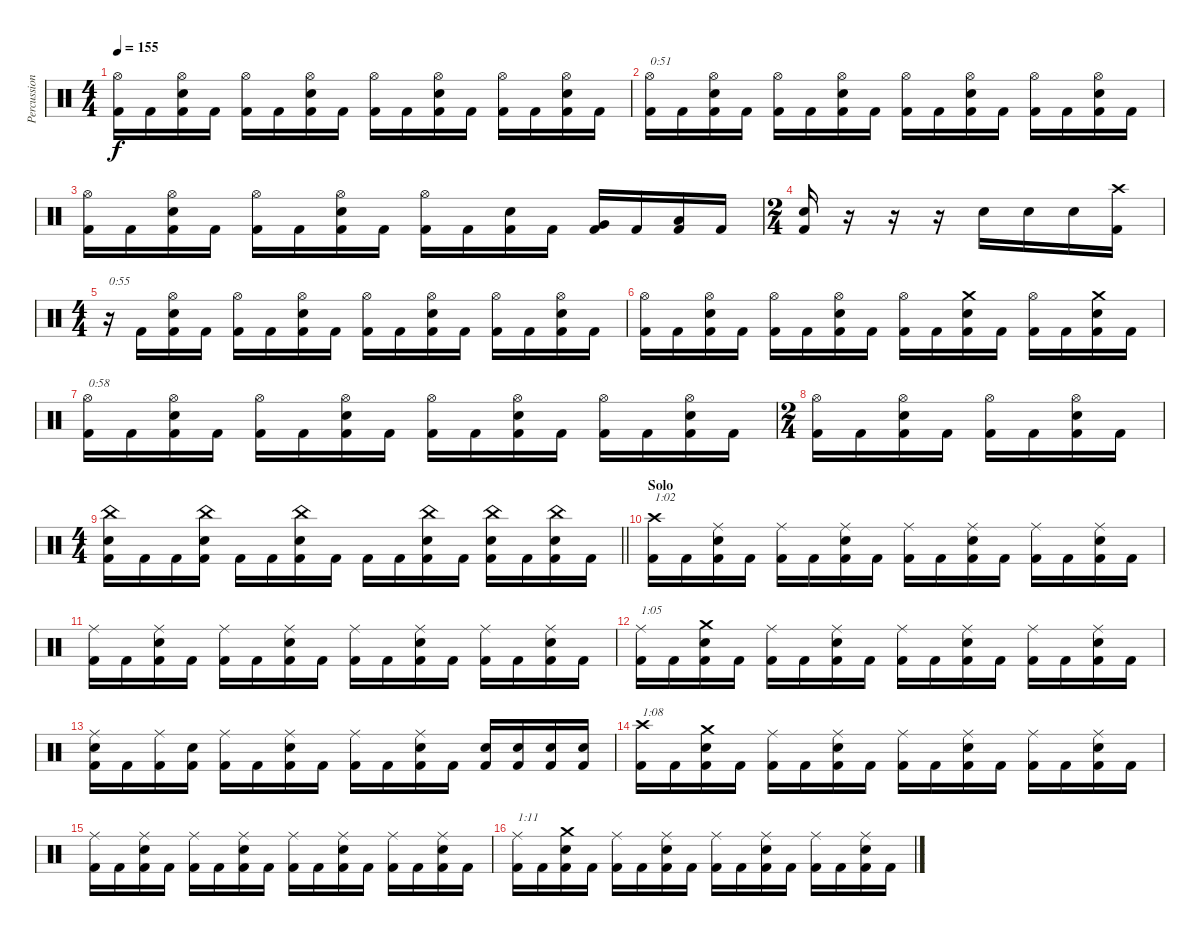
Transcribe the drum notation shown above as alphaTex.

\track ("Percussion" "Percussion") {instrument percussion}
\staff {score}
\articulation defaults
\ts (4 4)
\tempo 155
\clef neutral
\ks c
("Hi-Hat (open)" "Kick (hit) 2").16{dy f} "Kick (hit) 2".16 ("Hi-Hat (open)" "Electric Snare (hit)" "Kick (hit) 2").16 "Kick (hit) 2".16 ("Hi-Hat (open)" "Kick (hit) 2").16 "Kick (hit) 2".16 ("Hi-Hat (open)" "Electric Snare (hit)" "Kick (hit) 2").16 "Kick (hit) 2".16 ("Hi-Hat (open)" "Kick (hit) 2").16 "Kick (hit) 2".16 ("Hi-Hat (open)" "Electric Snare (hit)" "Kick (hit) 2").16 "Kick (hit) 2".16 ("Hi-Hat (open)" "Kick (hit) 2").16 "Kick (hit) 2".16 ("Hi-Hat (open)" "Electric Snare (hit)" "Kick (hit) 2").16 "Kick (hit) 2".16 |
("Hi-Hat (open)" "Kick (hit) 2").16{txt "0:51"} "Kick (hit) 2".16 ("Hi-Hat (open)" "Electric Snare (hit)" "Kick (hit) 2").16 "Kick (hit) 2".16 ("Hi-Hat (open)" "Kick (hit) 2").16 "Kick (hit) 2".16 ("Hi-Hat (open)" "Electric Snare (hit)" "Kick (hit) 2").16 "Kick (hit) 2".16 ("Hi-Hat (open)" "Kick (hit) 2").16 "Kick (hit) 2".16 ("Hi-Hat (open)" "Electric Snare (hit)" "Kick (hit) 2").16 "Kick (hit) 2".16 ("Hi-Hat (open)" "Kick (hit) 2").16 "Kick (hit) 2".16 ("Hi-Hat (open)" "Electric Snare (hit)" "Kick (hit) 2").16 "Kick (hit) 2".16 |
("Hi-Hat (open)" "Kick (hit) 2").16 "Kick (hit) 2".16 ("Hi-Hat (open)" "Electric Snare (hit)" "Kick (hit) 2").16 "Kick (hit) 2".16 ("Hi-Hat (open)" "Kick (hit) 2").16 "Kick (hit) 2".16 ("Hi-Hat (open)" "Electric Snare (hit)" "Kick (hit) 2").16 "Kick (hit) 2".16 ("Hi-Hat (open)" "Kick (hit) 2").16 "Kick (hit) 2".16 ("Electric Snare (hit)" "Kick (hit) 2").16 "Kick (hit) 2".16 ("Very Low Tom (hit)" "Kick (hit) 2").16 "Kick (hit) 2".16 ("Low Floor Tom (hit)" "Kick (hit) 2").16 "Kick (hit) 2".16 |
\ts (2 4)
("Electric Snare (hit)" "Kick (hit) 2").16 r.16 r.16 r.16 "Electric Snare (hit)".16 "Electric Snare (hit)".16 "Electric Snare (hit)".16 ("Crash high (hit)" "Kick (hit) 2").16 |
\ts (4 4)
r.16{txt "0:55"} "Kick (hit) 2".16 ("Hi-Hat (open)" "Electric Snare (hit)" "Kick (hit) 2").16 "Kick (hit) 2".16 ("Hi-Hat (open)" "Kick (hit) 2").16 "Kick (hit) 2".16 ("Hi-Hat (open)" "Electric Snare (hit)" "Kick (hit) 2").16 "Kick (hit) 2".16 ("Hi-Hat (open)" "Kick (hit) 2").16 "Kick (hit) 2".16 ("Hi-Hat (open)" "Electric Snare (hit)" "Kick (hit) 2").16 "Kick (hit) 2".16 ("Hi-Hat (open)" "Kick (hit) 2").16 "Kick (hit) 2".16 ("Hi-Hat (open)" "Electric Snare (hit)" "Kick (hit) 2").16 "Kick (hit) 2".16 |
("Hi-Hat (open)" "Kick (hit) 2").16 "Kick (hit) 2".16 ("Hi-Hat (open)" "Electric Snare (hit)" "Kick (hit) 2").16 "Kick (hit) 2".16 ("Hi-Hat (open)" "Kick (hit) 2").16 "Kick (hit) 2".16 ("Hi-Hat (open)" "Electric Snare (hit)" "Kick (hit) 2").16 "Kick (hit) 2".16 ("Hi-Hat (open)" "Kick (hit) 2").16 "Kick (hit) 2".16 ("Crash medium (hit)" "Electric Snare (hit)" "Kick (hit) 2").16 "Kick (hit) 2".16 ("Hi-Hat (open)" "Kick (hit) 2").16 "Kick (hit) 2".16 ("Crash medium (hit)" "Electric Snare (hit)" "Kick (hit) 2").16 "Kick (hit) 2".16 |
("Hi-Hat (open)" "Kick (hit) 2").16{txt "0:58"} "Kick (hit) 2".16 ("Hi-Hat (open)" "Electric Snare (hit)" "Kick (hit) 2").16 "Kick (hit) 2".16 ("Hi-Hat (open)" "Kick (hit) 2").16 "Kick (hit) 2".16 ("Hi-Hat (open)" "Electric Snare (hit)" "Kick (hit) 2").16 "Kick (hit) 2".16 ("Hi-Hat (open)" "Kick (hit) 2").16 "Kick (hit) 2".16 ("Hi-Hat (open)" "Electric Snare (hit)" "Kick (hit) 2").16 "Kick (hit) 2".16 ("Hi-Hat (open)" "Kick (hit) 2").16 "Kick (hit) 2".16 ("Hi-Hat (open)" "Electric Snare (hit)" "Kick (hit) 2").16 "Kick (hit) 2".16 |
\ts (2 4)
("Hi-Hat (open)" "Kick (hit) 2").16 "Kick (hit) 2".16 ("Hi-Hat (open)" "Electric Snare (hit)" "Kick (hit) 2").16 "Kick (hit) 2".16 ("Hi-Hat (open)" "Kick (hit) 2").16 "Kick (hit) 2".16 ("Hi-Hat (open)" "Electric Snare (hit)" "Kick (hit) 2").16 "Kick (hit) 2".16 |
\ts (4 4)
\barLineRight lightlight
("China (hit)" "Electric Snare (hit)" "Kick (hit) 2").16 "Kick (hit) 2".16 "Kick (hit) 2".16 ("China (hit)" "Electric Snare (hit)" "Kick (hit) 2").16 "Kick (hit) 2".16 "Kick (hit) 2".16 ("China (hit)" "Electric Snare (hit)" "Kick (hit) 2").16 "Kick (hit) 2".16 "Kick (hit) 2".16 "Kick (hit) 2".16 ("China (hit)" "Electric Snare (hit)" "Kick (hit) 2").16 "Kick (hit) 2".16 ("China (hit)" "Electric Snare (hit)" "Kick (hit) 2").16 "Kick (hit) 2".16 ("China (hit)" "Electric Snare (hit)" "Kick (hit) 2").16 "Kick (hit) 2".16 |
\section ("" "Solo")
("Crash high (hit)" "Kick (hit) 2").16{txt "1:02"} "Kick (hit) 2".16 ("Ride (middle)" "Electric Snare (hit)" "Kick (hit) 2").16 "Kick (hit) 2".16 ("Ride (middle)" "Kick (hit) 2").16 "Kick (hit) 2".16 ("Ride (middle)" "Electric Snare (hit)" "Kick (hit) 2").16 "Kick (hit) 2".16 ("Ride (middle)" "Kick (hit) 2").16 "Kick (hit) 2".16 ("Ride (middle)" "Electric Snare (hit)" "Kick (hit) 2").16 "Kick (hit) 2".16 ("Ride (middle)" "Kick (hit) 2").16 "Kick (hit) 2".16 ("Ride (middle)" "Electric Snare (hit)" "Kick (hit) 2").16 "Kick (hit) 2".16 |
("Ride (middle)" "Kick (hit) 2").16 "Kick (hit) 2".16 ("Ride (middle)" "Electric Snare (hit)" "Kick (hit) 2").16 "Kick (hit) 2".16 ("Ride (middle)" "Kick (hit) 2").16 "Kick (hit) 2".16 ("Ride (middle)" "Electric Snare (hit)" "Kick (hit) 2").16 "Kick (hit) 2".16 ("Ride (middle)" "Kick (hit) 2").16 "Kick (hit) 2".16 ("Ride (middle)" "Electric Snare (hit)" "Kick (hit) 2").16 "Kick (hit) 2".16 ("Ride (middle)" "Kick (hit) 2").16 "Kick (hit) 2".16 ("Ride (middle)" "Electric Snare (hit)" "Kick (hit) 2").16 "Kick (hit) 2".16 |
("Ride (middle)" "Kick (hit) 2").16{txt "1:05"} "Kick (hit) 2".16 ("Crash medium (hit)" "Electric Snare (hit)" "Kick (hit) 2").16 "Kick (hit) 2".16 ("Ride (middle)" "Kick (hit) 2").16 "Kick (hit) 2".16 ("Ride (middle)" "Electric Snare (hit)" "Kick (hit) 2").16 "Kick (hit) 2".16 ("Ride (middle)" "Kick (hit) 2").16 "Kick (hit) 2".16 ("Ride (middle)" "Electric Snare (hit)" "Kick (hit) 2").16 "Kick (hit) 2".16 ("Ride (middle)" "Kick (hit) 2").16 "Kick (hit) 2".16 ("Ride (middle)" "Electric Snare (hit)" "Kick (hit) 2").16 "Kick (hit) 2".16 |
("Ride (middle)" "Electric Snare (hit)" "Kick (hit) 2").16 "Kick (hit) 2".16 ("Ride (middle)" "Kick (hit) 2").16 ("Electric Snare (hit)" "Kick (hit) 2").16 ("Ride (middle)" "Kick (hit) 2").16 "Kick (hit) 2".16 ("Ride (middle)" "Electric Snare (hit)" "Kick (hit) 2").16 "Kick (hit) 2".16 ("Ride (middle)" "Kick (hit) 2").16 "Kick (hit) 2".16 ("Ride (middle)" "Electric Snare (hit)" "Kick (hit) 2").16 "Kick (hit) 2".16 ("Electric Snare (hit)" "Kick (hit) 2").16 ("Electric Snare (hit)" "Kick (hit) 2").16 ("Electric Snare (hit)" "Kick (hit) 2").16 ("Electric Snare (hit)" "Kick (hit) 2").16 |
("Crash high (hit)" "Kick (hit) 2").16{txt "1:08"} "Kick (hit) 2".16 ("Crash medium (hit)" "Electric Snare (hit)" "Kick (hit) 2").16 "Kick (hit) 2".16 ("Ride (middle)" "Kick (hit) 2").16 "Kick (hit) 2".16 ("Ride (middle)" "Electric Snare (hit)" "Kick (hit) 2").16 "Kick (hit) 2".16 ("Ride (middle)" "Kick (hit) 2").16 "Kick (hit) 2".16 ("Ride (middle)" "Electric Snare (hit)" "Kick (hit) 2").16 "Kick (hit) 2".16 ("Ride (middle)" "Kick (hit) 2").16 "Kick (hit) 2".16 ("Ride (middle)" "Electric Snare (hit)" "Kick (hit) 2").16 "Kick (hit) 2".16 |
("Ride (middle)" "Kick (hit) 2").16 "Kick (hit) 2".16 ("Ride (middle)" "Electric Snare (hit)" "Kick (hit) 2").16 "Kick (hit) 2".16 ("Ride (middle)" "Kick (hit) 2").16 "Kick (hit) 2".16 ("Ride (middle)" "Electric Snare (hit)" "Kick (hit) 2").16 "Kick (hit) 2".16 ("Ride (middle)" "Kick (hit) 2").16 "Kick (hit) 2".16 ("Ride (middle)" "Electric Snare (hit)" "Kick (hit) 2").16 "Kick (hit) 2".16 ("Ride (middle)" "Kick (hit) 2").16 "Kick (hit) 2".16 ("Ride (middle)" "Electric Snare (hit)" "Kick (hit) 2").16 "Kick (hit) 2".16 |
("Ride (middle)" "Kick (hit) 2").16{txt "1:11"} "Kick (hit) 2".16 ("Crash medium (hit)" "Electric Snare (hit)" "Kick (hit) 2").16 "Kick (hit) 2".16 ("Ride (middle)" "Kick (hit) 2").16 "Kick (hit) 2".16 ("Ride (middle)" "Electric Snare (hit)" "Kick (hit) 2").16 "Kick (hit) 2".16 ("Ride (middle)" "Kick (hit) 2").16 "Kick (hit) 2".16 ("Ride (middle)" "Electric Snare (hit)" "Kick (hit) 2").16 "Kick (hit) 2".16 ("Ride (middle)" "Kick (hit) 2").16 "Kick (hit) 2".16 ("Ride (middle)" "Electric Snare (hit)" "Kick (hit) 2").16 "Kick (hit) 2".16
